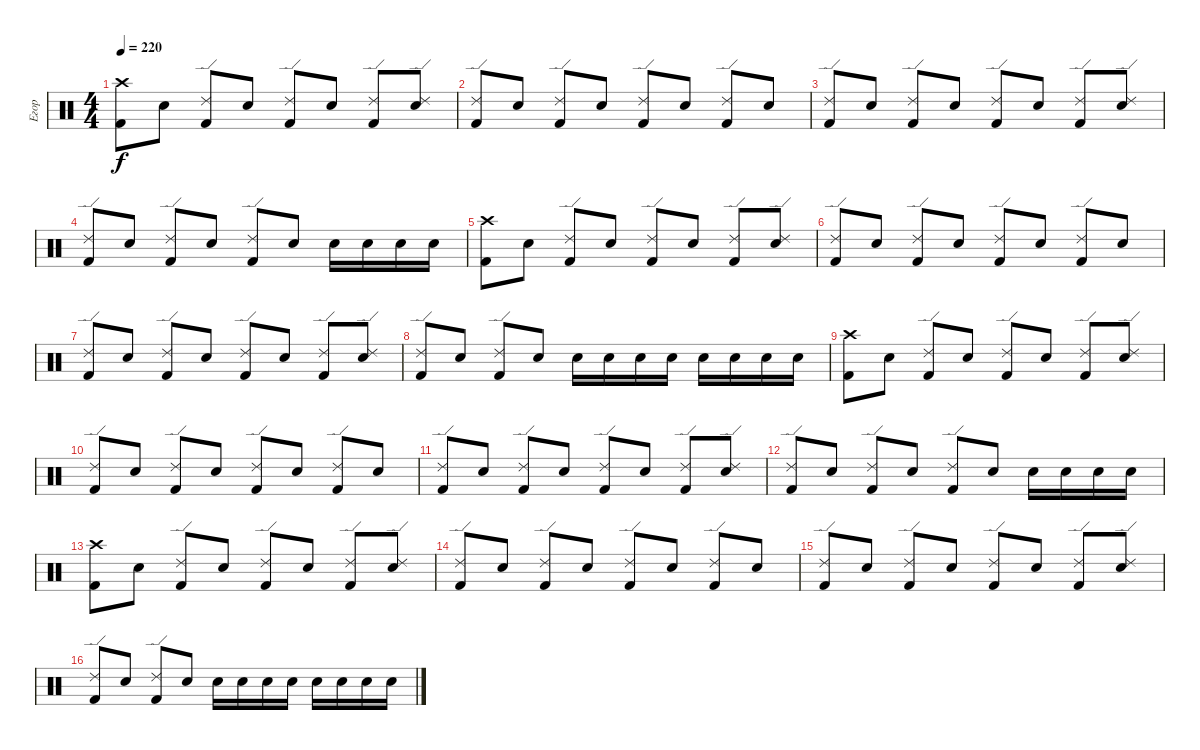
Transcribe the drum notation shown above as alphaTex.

\track ("Егор" "Егор") {instrument percussion}
\staff {score}
\articulation defaults
\ts (4 4)
\tempo 220
\clef neutral
\ks c
("Crash high (hit)" "Kick (hit) 2").8{dy f} "Snare (hit) 2".8 ("Ride (edge) 2" "Kick (hit) 2").8 "Snare (hit) 2".8 ("Ride (edge) 2" "Kick (hit) 2").8 "Snare (hit) 2".8 ("Ride (edge) 2" "Kick (hit) 2").8 ("Ride (edge) 2" "Snare (hit) 2").8 |
("Ride (edge) 2" "Kick (hit) 2").8 "Snare (hit) 2".8 ("Ride (edge) 2" "Kick (hit) 2").8 "Snare (hit) 2".8 ("Ride (edge) 2" "Kick (hit) 2").8 "Snare (hit) 2".8 ("Ride (edge) 2" "Kick (hit) 2").8 "Snare (hit) 2".8 |
("Ride (edge) 2" "Kick (hit) 2").8 "Snare (hit) 2".8 ("Ride (edge) 2" "Kick (hit) 2").8 "Snare (hit) 2".8 ("Ride (edge) 2" "Kick (hit) 2").8 "Snare (hit) 2".8 ("Ride (edge) 2" "Kick (hit) 2").8 ("Ride (edge) 2" "Snare (hit) 2").8 |
("Ride (edge) 2" "Kick (hit) 2").8 "Snare (hit) 2".8 ("Ride (edge) 2" "Kick (hit) 2").8 "Snare (hit) 2".8 ("Ride (edge) 2" "Kick (hit) 2").8 "Snare (hit) 2".8 "Snare (hit) 2".16 "Snare (hit) 2".16 "Snare (hit) 2".16 "Snare (hit) 2".16 |
("Crash high (hit)" "Kick (hit) 2").8 "Snare (hit) 2".8 ("Ride (edge) 2" "Kick (hit) 2").8 "Snare (hit) 2".8 ("Ride (edge) 2" "Kick (hit) 2").8 "Snare (hit) 2".8 ("Ride (edge) 2" "Kick (hit) 2").8 ("Ride (edge) 2" "Snare (hit) 2").8 |
("Ride (edge) 2" "Kick (hit) 2").8 "Snare (hit) 2".8 ("Ride (edge) 2" "Kick (hit) 2").8 "Snare (hit) 2".8 ("Ride (edge) 2" "Kick (hit) 2").8 "Snare (hit) 2".8 ("Ride (edge) 2" "Kick (hit) 2").8 "Snare (hit) 2".8 |
("Ride (edge) 2" "Kick (hit) 2").8 "Snare (hit) 2".8 ("Ride (edge) 2" "Kick (hit) 2").8 "Snare (hit) 2".8 ("Ride (edge) 2" "Kick (hit) 2").8 "Snare (hit) 2".8 ("Ride (edge) 2" "Kick (hit) 2").8 ("Ride (edge) 2" "Snare (hit) 2").8 |
("Ride (edge) 2" "Kick (hit) 2").8 "Snare (hit) 2".8 ("Ride (edge) 2" "Kick (hit) 2").8 "Snare (hit) 2".8 "Snare (hit) 2".16 "Snare (hit) 2".16 "Snare (hit) 2".16 "Snare (hit) 2".16 "Snare (hit) 2".16 "Snare (hit) 2".16 "Snare (hit) 2".16 "Snare (hit) 2".16 |
("Crash high (hit)" "Kick (hit) 2").8 "Snare (hit) 2".8 ("Ride (edge) 2" "Kick (hit) 2").8 "Snare (hit) 2".8 ("Ride (edge) 2" "Kick (hit) 2").8 "Snare (hit) 2".8 ("Ride (edge) 2" "Kick (hit) 2").8 ("Ride (edge) 2" "Snare (hit) 2").8 |
("Ride (edge) 2" "Kick (hit) 2").8 "Snare (hit) 2".8 ("Ride (edge) 2" "Kick (hit) 2").8 "Snare (hit) 2".8 ("Ride (edge) 2" "Kick (hit) 2").8 "Snare (hit) 2".8 ("Ride (edge) 2" "Kick (hit) 2").8 "Snare (hit) 2".8 |
("Ride (edge) 2" "Kick (hit) 2").8 "Snare (hit) 2".8 ("Ride (edge) 2" "Kick (hit) 2").8 "Snare (hit) 2".8 ("Ride (edge) 2" "Kick (hit) 2").8 "Snare (hit) 2".8 ("Ride (edge) 2" "Kick (hit) 2").8 ("Ride (edge) 2" "Snare (hit) 2").8 |
("Ride (edge) 2" "Kick (hit) 2").8 "Snare (hit) 2".8 ("Ride (edge) 2" "Kick (hit) 2").8 "Snare (hit) 2".8 ("Ride (edge) 2" "Kick (hit) 2").8 "Snare (hit) 2".8 "Snare (hit) 2".16 "Snare (hit) 2".16 "Snare (hit) 2".16 "Snare (hit) 2".16 |
("Crash high (hit)" "Kick (hit) 2").8 "Snare (hit) 2".8 ("Ride (edge) 2" "Kick (hit) 2").8 "Snare (hit) 2".8 ("Ride (edge) 2" "Kick (hit) 2").8 "Snare (hit) 2".8 ("Ride (edge) 2" "Kick (hit) 2").8 ("Ride (edge) 2" "Snare (hit) 2").8 |
("Ride (edge) 2" "Kick (hit) 2").8 "Snare (hit) 2".8 ("Ride (edge) 2" "Kick (hit) 2").8 "Snare (hit) 2".8 ("Ride (edge) 2" "Kick (hit) 2").8 "Snare (hit) 2".8 ("Ride (edge) 2" "Kick (hit) 2").8 "Snare (hit) 2".8 |
("Ride (edge) 2" "Kick (hit) 2").8 "Snare (hit) 2".8 ("Ride (edge) 2" "Kick (hit) 2").8 "Snare (hit) 2".8 ("Ride (edge) 2" "Kick (hit) 2").8 "Snare (hit) 2".8 ("Ride (edge) 2" "Kick (hit) 2").8 ("Ride (edge) 2" "Snare (hit) 2").8 |
("Ride (edge) 2" "Kick (hit) 2").8 "Snare (hit) 2".8 ("Ride (edge) 2" "Kick (hit) 2").8 "Snare (hit) 2".8 "Snare (hit) 2".16 "Snare (hit) 2".16 "Snare (hit) 2".16 "Snare (hit) 2".16 "Snare (hit) 2".16 "Snare (hit) 2".16 "Snare (hit) 2".16 "Snare (hit) 2".16
